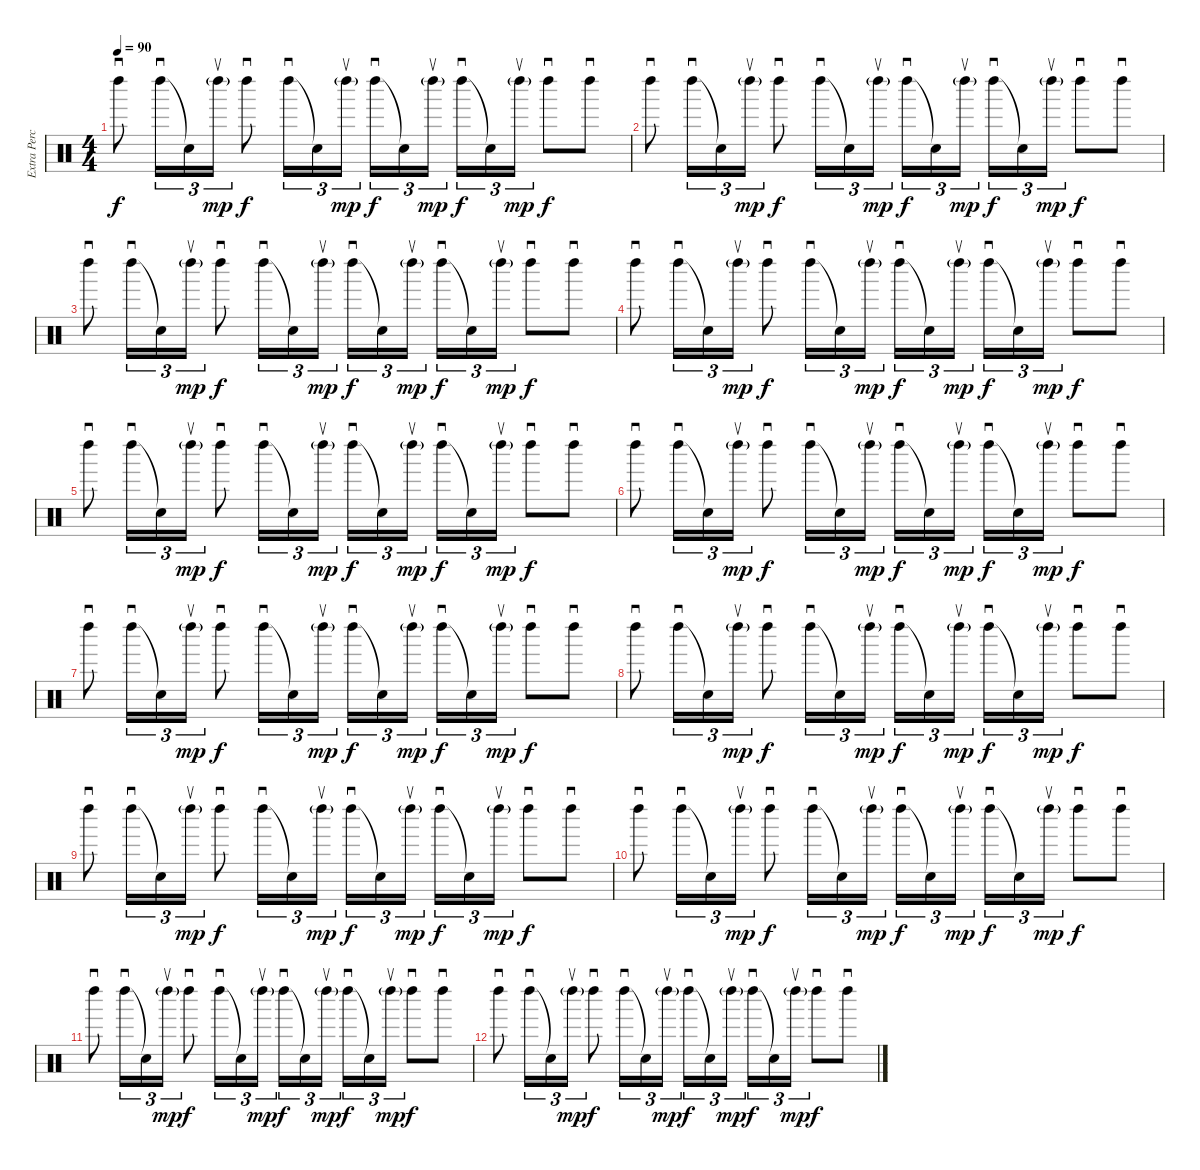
\track ("Extra Percussion" "Extra Perc") {instrument percussion}
\staff {score}
\articulation defaults
\ts (4 4)
\tempo 90
\clef neutral
\ks c "Left Maraca (hit)".8{sd dy f} "Left Maraca (hit)".16{sd tu (3 2)} "Snare (hit)"{t}.16{tu (3 2)} "Left Maraca (hit)"{g}.16{su tu (3 2) dy mp} "Left Maraca (hit)".8{sd dy f} "Left Maraca (hit)".16{sd tu (3 2)} "Snare (hit)"{t}.16{tu (3 2)} "Left Maraca (hit)"{g}.16{su tu (3 2) dy mp} "Left Maraca (hit)".16{sd tu (3 2) dy f} "Snare (hit)"{t}.16{tu (3 2)} "Left Maraca (hit)"{g}.16{su tu (3 2) dy mp} "Left Maraca (hit)".16{sd tu (3 2) dy f} "Snare (hit)"{t}.16{tu (3 2)} "Left Maraca (hit)"{g}.16{su tu (3 2) dy mp} "Left Maraca (hit)".8{sd dy f} "Left Maraca (hit)".8{sd}
|
"Left Maraca (hit)".8{sd} "Left Maraca (hit)".16{sd tu (3 2)} "Snare (hit)"{t}.16{tu (3 2)} "Left Maraca (hit)"{g}.16{su tu (3 2) dy mp} "Left Maraca (hit)".8{sd dy f} "Left Maraca (hit)".16{sd tu (3 2)} "Snare (hit)"{t}.16{tu (3 2)} "Left Maraca (hit)"{g}.16{su tu (3 2) dy mp} "Left Maraca (hit)".16{sd tu (3 2) dy f} "Snare (hit)"{t}.16{tu (3 2)} "Left Maraca (hit)"{g}.16{su tu (3 2) dy mp} "Left Maraca (hit)".16{sd tu (3 2) dy f} "Snare (hit)"{t}.16{tu (3 2)} "Left Maraca (hit)"{g}.16{su tu (3 2) dy mp} "Left Maraca (hit)".8{sd dy f} "Left Maraca (hit)".8{sd} |
"Left Maraca (hit)".8{sd} "Left Maraca (hit)".16{sd tu (3 2)} "Snare (hit)"{t}.16{tu (3 2)} "Left Maraca (hit)"{g}.16{su tu (3 2) dy mp} "Left Maraca (hit)".8{sd dy f} "Left Maraca (hit)".16{sd tu (3 2)} "Snare (hit)"{t}.16{tu (3 2)} "Left Maraca (hit)"{g}.16{su tu (3 2) dy mp} "Left Maraca (hit)".16{sd tu (3 2) dy f} "Snare (hit)"{t}.16{tu (3 2)} "Left Maraca (hit)"{g}.16{su tu (3 2) dy mp} "Left Maraca (hit)".16{sd tu (3 2) dy f} "Snare (hit)"{t}.16{tu (3 2)} "Left Maraca (hit)"{g}.16{su tu (3 2) dy mp} "Left Maraca (hit)".8{sd dy f} "Left Maraca (hit)".8{sd} |
"Left Maraca (hit)".8{sd} "Left Maraca (hit)".16{sd tu (3 2)} "Snare (hit)"{t}.16{tu (3 2)} "Left Maraca (hit)"{g}.16{su tu (3 2) dy mp} "Left Maraca (hit)".8{sd dy f} "Left Maraca (hit)".16{sd tu (3 2)} "Snare (hit)"{t}.16{tu (3 2)} "Left Maraca (hit)"{g}.16{su tu (3 2) dy mp} "Left Maraca (hit)".16{sd tu (3 2) dy f} "Snare (hit)"{t}.16{tu (3 2)} "Left Maraca (hit)"{g}.16{su tu (3 2) dy mp} "Left Maraca (hit)".16{sd tu (3 2) dy f} "Snare (hit)"{t}.16{tu (3 2)} "Left Maraca (hit)"{g}.16{su tu (3 2) dy mp} "Left Maraca (hit)".8{sd dy f} "Left Maraca (hit)".8{sd} |
"Left Maraca (hit)".8{sd} "Left Maraca (hit)".16{sd tu (3 2)} "Snare (hit)"{t}.16{tu (3 2)} "Left Maraca (hit)"{g}.16{su tu (3 2) dy mp} "Left Maraca (hit)".8{sd dy f} "Left Maraca (hit)".16{sd tu (3 2)} "Snare (hit)"{t}.16{tu (3 2)} "Left Maraca (hit)"{g}.16{su tu (3 2) dy mp} "Left Maraca (hit)".16{sd tu (3 2) dy f} "Snare (hit)"{t}.16{tu (3 2)} "Left Maraca (hit)"{g}.16{su tu (3 2) dy mp} "Left Maraca (hit)".16{sd tu (3 2) dy f} "Snare (hit)"{t}.16{tu (3 2)} "Left Maraca (hit)"{g}.16{su tu (3 2) dy mp} "Left Maraca (hit)".8{sd dy f} "Left Maraca (hit)".8{sd} |
"Left Maraca (hit)".8{sd} "Left Maraca (hit)".16{sd tu (3 2)} "Snare (hit)"{t}.16{tu (3 2)} "Left Maraca (hit)"{g}.16{su tu (3 2) dy mp} "Left Maraca (hit)".8{sd dy f} "Left Maraca (hit)".16{sd tu (3 2)} "Snare (hit)"{t}.16{tu (3 2)} "Left Maraca (hit)"{g}.16{su tu (3 2) dy mp} "Left Maraca (hit)".16{sd tu (3 2) dy f} "Snare (hit)"{t}.16{tu (3 2)} "Left Maraca (hit)"{g}.16{su tu (3 2) dy mp} "Left Maraca (hit)".16{sd tu (3 2) dy f} "Snare (hit)"{t}.16{tu (3 2)} "Left Maraca (hit)"{g}.16{su tu (3 2) dy mp} "Left Maraca (hit)".8{sd dy f} "Left Maraca (hit)".8{sd} |
"Left Maraca (hit)".8{sd} "Left Maraca (hit)".16{sd tu (3 2)} "Snare (hit)"{t}.16{tu (3 2)} "Left Maraca (hit)"{g}.16{su tu (3 2) dy mp} "Left Maraca (hit)".8{sd dy f} "Left Maraca (hit)".16{sd tu (3 2)} "Snare (hit)"{t}.16{tu (3 2)} "Left Maraca (hit)"{g}.16{su tu (3 2) dy mp} "Left Maraca (hit)".16{sd tu (3 2) dy f} "Snare (hit)"{t}.16{tu (3 2)} "Left Maraca (hit)"{g}.16{su tu (3 2) dy mp} "Left Maraca (hit)".16{sd tu (3 2) dy f} "Snare (hit)"{t}.16{tu (3 2)} "Left Maraca (hit)"{g}.16{su tu (3 2) dy mp} "Left Maraca (hit)".8{sd dy f} "Left Maraca (hit)".8{sd} |
"Left Maraca (hit)".8{sd} "Left Maraca (hit)".16{sd tu (3 2)} "Snare (hit)"{t}.16{tu (3 2)} "Left Maraca (hit)"{g}.16{su tu (3 2) dy mp} "Left Maraca (hit)".8{sd dy f} "Left Maraca (hit)".16{sd tu (3 2)} "Snare (hit)"{t}.16{tu (3 2)} "Left Maraca (hit)"{g}.16{su tu (3 2) dy mp} "Left Maraca (hit)".16{sd tu (3 2) dy f} "Snare (hit)"{t}.16{tu (3 2)} "Left Maraca (hit)"{g}.16{su tu (3 2) dy mp} "Left Maraca (hit)".16{sd tu (3 2) dy f} "Snare (hit)"{t}.16{tu (3 2)} "Left Maraca (hit)"{g}.16{su tu (3 2) dy mp} "Left Maraca (hit)".8{sd dy f} "Left Maraca (hit)".8{sd} |
"Left Maraca (hit)".8{sd} "Left Maraca (hit)".16{sd tu (3 2)} "Snare (hit)"{t}.16{tu (3 2)} "Left Maraca (hit)"{g}.16{su tu (3 2) dy mp} "Left Maraca (hit)".8{sd dy f} "Left Maraca (hit)".16{sd tu (3 2)} "Snare (hit)"{t}.16{tu (3 2)} "Left Maraca (hit)"{g}.16{su tu (3 2) dy mp} "Left Maraca (hit)".16{sd tu (3 2) dy f} "Snare (hit)"{t}.16{tu (3 2)} "Left Maraca (hit)"{g}.16{su tu (3 2) dy mp} "Left Maraca (hit)".16{sd tu (3 2) dy f} "Snare (hit)"{t}.16{tu (3 2)} "Left Maraca (hit)"{g}.16{su tu (3 2) dy mp} "Left Maraca (hit)".8{sd dy f} "Left Maraca (hit)".8{sd} |
"Left Maraca (hit)".8{sd} "Left Maraca (hit)".16{sd tu (3 2)} "Snare (hit)"{t}.16{tu (3 2)} "Left Maraca (hit)"{g}.16{su tu (3 2) dy mp} "Left Maraca (hit)".8{sd dy f} "Left Maraca (hit)".16{sd tu (3 2)} "Snare (hit)"{t}.16{tu (3 2)} "Left Maraca (hit)"{g}.16{su tu (3 2) dy mp} "Left Maraca (hit)".16{sd tu (3 2) dy f} "Snare (hit)"{t}.16{tu (3 2)} "Left Maraca (hit)"{g}.16{su tu (3 2) dy mp} "Left Maraca (hit)".16{sd tu (3 2) dy f} "Snare (hit)"{t}.16{tu (3 2)} "Left Maraca (hit)"{g}.16{su tu (3 2) dy mp} "Left Maraca (hit)".8{sd dy f} "Left Maraca (hit)".8{sd} |
"Left Maraca (hit)".8{sd} "Left Maraca (hit)".16{sd tu (3 2)} "Snare (hit)"{t}.16{tu (3 2)} "Left Maraca (hit)"{g}.16{su tu (3 2) dy mp} "Left Maraca (hit)".8{sd dy f} "Left Maraca (hit)".16{sd tu (3 2)} "Snare (hit)"{t}.16{tu (3 2)} "Left Maraca (hit)"{g}.16{su tu (3 2) dy mp} "Left Maraca (hit)".16{sd tu (3 2) dy f} "Snare (hit)"{t}.16{tu (3 2)} "Left Maraca (hit)"{g}.16{su tu (3 2) dy mp} "Left Maraca (hit)".16{sd tu (3 2) dy f} "Snare (hit)"{t}.16{tu (3 2)} "Left Maraca (hit)"{g}.16{su tu (3 2) dy mp} "Left Maraca (hit)".8{sd dy f} "Left Maraca (hit)".8{sd} |
"Left Maraca (hit)".8{sd} "Left Maraca (hit)".16{sd tu (3 2)} "Snare (hit)"{t}.16{tu (3 2)} "Left Maraca (hit)"{g}.16{su tu (3 2) dy mp} "Left Maraca (hit)".8{sd dy f} "Left Maraca (hit)".16{sd tu (3 2)} "Snare (hit)"{t}.16{tu (3 2)} "Left Maraca (hit)"{g}.16{su tu (3 2) dy mp} "Left Maraca (hit)".16{sd tu (3 2) dy f} "Snare (hit)"{t}.16{tu (3 2)} "Left Maraca (hit)"{g}.16{su tu (3 2) dy mp} "Left Maraca (hit)".16{sd tu (3 2) dy f} "Snare (hit)"{t}.16{tu (3 2)} "Left Maraca (hit)"{g}.16{su tu (3 2) dy mp} "Left Maraca (hit)".8{sd dy f} "Left Maraca (hit)".8{sd}
